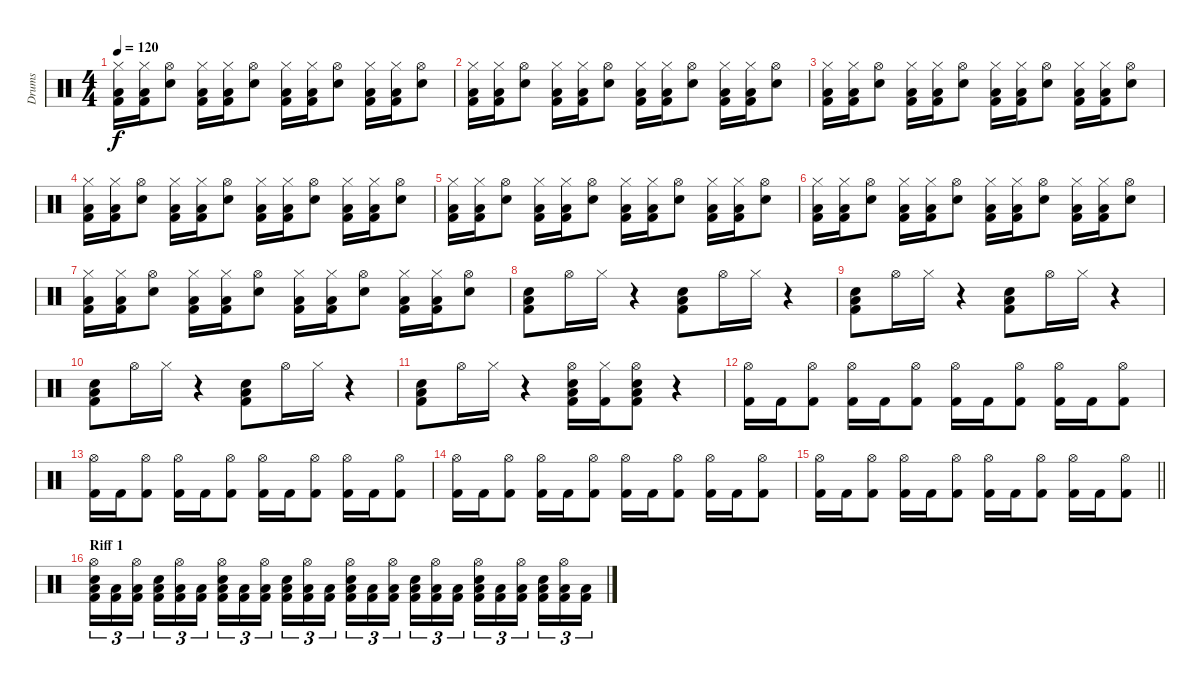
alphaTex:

\track ("Drums" "Drums") {instrument percussion}
\staff {score}
\articulation defaults
\ts (4 4)
\tempo 120
\clef neutral
\ks c
("Hi-Hat (closed)" "Low Floor Tom (hit)" "Kick (hit) 2").16{dy f} ("Hi-Hat (closed)" "Low Floor Tom (hit)" "Kick (hit) 2").16 ("Hi-Hat (open)" "Snare (hit) 2").8 ("Hi-Hat (closed)" "Low Floor Tom (hit)" "Kick (hit) 2").16 ("Hi-Hat (closed)" "Low Floor Tom (hit)" "Kick (hit) 2").16 ("Hi-Hat (open)" "Snare (hit) 2").8 ("Hi-Hat (closed)" "Low Floor Tom (hit)" "Kick (hit) 2").16 ("Hi-Hat (closed)" "Low Floor Tom (hit)" "Kick (hit) 2").16 ("Hi-Hat (open)" "Snare (hit) 2").8 ("Hi-Hat (closed)" "Low Floor Tom (hit)" "Kick (hit) 2").16 ("Hi-Hat (closed)" "Low Floor Tom (hit)" "Kick (hit) 2").16 ("Hi-Hat (open)" "Snare (hit) 2").8 |
("Hi-Hat (closed)" "Low Floor Tom (hit)" "Kick (hit) 2").16 ("Hi-Hat (closed)" "Low Floor Tom (hit)" "Kick (hit) 2").16 ("Hi-Hat (open)" "Snare (hit) 2").8 ("Hi-Hat (closed)" "Low Floor Tom (hit)" "Kick (hit) 2").16 ("Hi-Hat (closed)" "Low Floor Tom (hit)" "Kick (hit) 2").16 ("Hi-Hat (open)" "Snare (hit) 2").8 ("Hi-Hat (closed)" "Low Floor Tom (hit)" "Kick (hit) 2").16 ("Hi-Hat (closed)" "Low Floor Tom (hit)" "Kick (hit) 2").16 ("Hi-Hat (open)" "Snare (hit) 2").8 ("Hi-Hat (closed)" "Low Floor Tom (hit)" "Kick (hit) 2").16 ("Hi-Hat (closed)" "Low Floor Tom (hit)" "Kick (hit) 2").16 ("Hi-Hat (open)" "Snare (hit) 2").8 |
("Hi-Hat (closed)" "Low Floor Tom (hit)" "Kick (hit) 2").16 ("Hi-Hat (closed)" "Low Floor Tom (hit)" "Kick (hit) 2").16 ("Hi-Hat (open)" "Snare (hit) 2").8 ("Hi-Hat (closed)" "Low Floor Tom (hit)" "Kick (hit) 2").16 ("Hi-Hat (closed)" "Low Floor Tom (hit)" "Kick (hit) 2").16 ("Hi-Hat (open)" "Snare (hit) 2").8 ("Hi-Hat (closed)" "Low Floor Tom (hit)" "Kick (hit) 2").16 ("Hi-Hat (closed)" "Low Floor Tom (hit)" "Kick (hit) 2").16 ("Hi-Hat (open)" "Snare (hit) 2").8 ("Hi-Hat (closed)" "Low Floor Tom (hit)" "Kick (hit) 2").16 ("Hi-Hat (closed)" "Low Floor Tom (hit)" "Kick (hit) 2").16 ("Hi-Hat (open)" "Snare (hit) 2").8 |
("Hi-Hat (closed)" "Low Floor Tom (hit)" "Kick (hit) 2").16 ("Hi-Hat (closed)" "Low Floor Tom (hit)" "Kick (hit) 2").16 ("Hi-Hat (open)" "Snare (hit) 2").8 ("Hi-Hat (closed)" "Low Floor Tom (hit)" "Kick (hit) 2").16 ("Hi-Hat (closed)" "Low Floor Tom (hit)" "Kick (hit) 2").16 ("Hi-Hat (open)" "Snare (hit) 2").8 ("Hi-Hat (closed)" "Low Floor Tom (hit)" "Kick (hit) 2").16 ("Hi-Hat (closed)" "Low Floor Tom (hit)" "Kick (hit) 2").16 ("Hi-Hat (open)" "Snare (hit) 2").8 ("Hi-Hat (closed)" "Low Floor Tom (hit)" "Kick (hit) 2").16 ("Hi-Hat (closed)" "Low Floor Tom (hit)" "Kick (hit) 2").16 ("Hi-Hat (open)" "Snare (hit) 2").8 |
("Hi-Hat (closed)" "Low Floor Tom (hit)" "Kick (hit) 2").16 ("Hi-Hat (closed)" "Low Floor Tom (hit)" "Kick (hit) 2").16 ("Hi-Hat (open)" "Snare (hit) 2").8 ("Hi-Hat (closed)" "Low Floor Tom (hit)" "Kick (hit) 2").16 ("Hi-Hat (closed)" "Low Floor Tom (hit)" "Kick (hit) 2").16 ("Hi-Hat (open)" "Snare (hit) 2").8 ("Hi-Hat (closed)" "Low Floor Tom (hit)" "Kick (hit) 2").16 ("Hi-Hat (closed)" "Low Floor Tom (hit)" "Kick (hit) 2").16 ("Hi-Hat (open)" "Snare (hit) 2").8 ("Hi-Hat (closed)" "Low Floor Tom (hit)" "Kick (hit) 2").16 ("Hi-Hat (closed)" "Low Floor Tom (hit)" "Kick (hit) 2").16 ("Hi-Hat (open)" "Snare (hit) 2").8 |
("Hi-Hat (closed)" "Low Floor Tom (hit)" "Kick (hit) 2").16 ("Hi-Hat (closed)" "Low Floor Tom (hit)" "Kick (hit) 2").16 ("Hi-Hat (open)" "Snare (hit) 2").8 ("Hi-Hat (closed)" "Low Floor Tom (hit)" "Kick (hit) 2").16 ("Hi-Hat (closed)" "Low Floor Tom (hit)" "Kick (hit) 2").16 ("Hi-Hat (open)" "Snare (hit) 2").8 ("Hi-Hat (closed)" "Low Floor Tom (hit)" "Kick (hit) 2").16 ("Hi-Hat (closed)" "Low Floor Tom (hit)" "Kick (hit) 2").16 ("Hi-Hat (open)" "Snare (hit) 2").8 ("Hi-Hat (closed)" "Low Floor Tom (hit)" "Kick (hit) 2").16 ("Hi-Hat (closed)" "Low Floor Tom (hit)" "Kick (hit) 2").16 ("Hi-Hat (open)" "Snare (hit) 2").8 |
("Hi-Hat (closed)" "Low Floor Tom (hit)" "Kick (hit) 2").16 ("Hi-Hat (closed)" "Low Floor Tom (hit)" "Kick (hit) 2").16 ("Hi-Hat (open)" "Snare (hit) 2").8 ("Hi-Hat (closed)" "Low Floor Tom (hit)" "Kick (hit) 2").16 ("Hi-Hat (closed)" "Low Floor Tom (hit)" "Kick (hit) 2").16 ("Hi-Hat (open)" "Snare (hit) 2").8 ("Hi-Hat (closed)" "Low Floor Tom (hit)" "Kick (hit) 2").16 ("Hi-Hat (closed)" "Low Floor Tom (hit)" "Kick (hit) 2").16 ("Hi-Hat (open)" "Snare (hit) 2").8 ("Hi-Hat (closed)" "Low Floor Tom (hit)" "Kick (hit) 2").16 ("Hi-Hat (closed)" "Low Floor Tom (hit)" "Kick (hit) 2").16 ("Hi-Hat (open)" "Snare (hit) 2").8 |
("Low Floor Tom (hit)" "Snare (hit) 2" "Kick (hit) 2").8 "Hi-Hat (open)".16 "Hi-Hat (closed)".16 r.4 ("Low Floor Tom (hit)" "Snare (hit) 2" "Kick (hit) 2").8 "Hi-Hat (open)".16 "Hi-Hat (closed)".16 r.4 |
("Low Floor Tom (hit)" "Snare (hit) 2" "Kick (hit) 2").8 "Hi-Hat (open)".16 "Hi-Hat (closed)".16 r.4 ("Low Floor Tom (hit)" "Snare (hit) 2" "Kick (hit) 2").8 "Hi-Hat (open)".16 "Hi-Hat (closed)".16 r.4 |
("Low Floor Tom (hit)" "Snare (hit) 2" "Kick (hit) 2").8 "Hi-Hat (open)".16 "Hi-Hat (closed)".16 r.4 ("Low Floor Tom (hit)" "Snare (hit) 2" "Kick (hit) 2").8 "Hi-Hat (open)".16 "Hi-Hat (closed)".16 r.4 |
("Low Floor Tom (hit)" "Snare (hit) 2" "Kick (hit) 2").8 "Hi-Hat (open)".16 "Hi-Hat (closed)".16 r.4 ("Hi-Hat (open)" "Low Floor Tom (hit)" "Snare (hit) 2" "Kick (hit) 2").16 ("Hi-Hat (closed)" "Kick (hit) 2").16 ("Hi-Hat (open)" "Low Floor Tom (hit)" "Snare (hit) 2" "Kick (hit) 2").8 r.4 |
("Hi-Hat (open)" "Kick (hit) 2").16 "Kick (hit) 2".16 ("Hi-Hat (open)" "Kick (hit) 2").8 ("Hi-Hat (open)" "Kick (hit) 2").16 "Kick (hit) 2".16 ("Hi-Hat (open)" "Kick (hit) 2").8 ("Hi-Hat (open)" "Kick (hit) 2").16 "Kick (hit) 2".16 ("Hi-Hat (open)" "Kick (hit) 2").8 ("Hi-Hat (open)" "Kick (hit) 2").16 "Kick (hit) 2".16 ("Hi-Hat (open)" "Kick (hit) 2").8 |
("Hi-Hat (open)" "Kick (hit) 2").16 "Kick (hit) 2".16 ("Hi-Hat (open)" "Kick (hit) 2").8 ("Hi-Hat (open)" "Kick (hit) 2").16 "Kick (hit) 2".16 ("Hi-Hat (open)" "Kick (hit) 2").8 ("Hi-Hat (open)" "Kick (hit) 2").16 "Kick (hit) 2".16 ("Hi-Hat (open)" "Kick (hit) 2").8 ("Hi-Hat (open)" "Kick (hit) 2").16 "Kick (hit) 2".16 ("Hi-Hat (open)" "Kick (hit) 2").8 |
("Hi-Hat (open)" "Kick (hit) 2").16 "Kick (hit) 2".16 ("Hi-Hat (open)" "Kick (hit) 2").8 ("Hi-Hat (open)" "Kick (hit) 2").16 "Kick (hit) 2".16 ("Hi-Hat (open)" "Kick (hit) 2").8 ("Hi-Hat (open)" "Kick (hit) 2").16 "Kick (hit) 2".16 ("Hi-Hat (open)" "Kick (hit) 2").8 ("Hi-Hat (open)" "Kick (hit) 2").16 "Kick (hit) 2".16 ("Hi-Hat (open)" "Kick (hit) 2").8 |
\barLineRight lightlight
("Hi-Hat (open)" "Kick (hit) 2").16 "Kick (hit) 2".16 ("Hi-Hat (open)" "Kick (hit) 2").8 ("Hi-Hat (open)" "Kick (hit) 2").16 "Kick (hit) 2".16 ("Hi-Hat (open)" "Kick (hit) 2").8 ("Hi-Hat (open)" "Kick (hit) 2").16 "Kick (hit) 2".16 ("Hi-Hat (open)" "Kick (hit) 2").8 ("Hi-Hat (open)" "Kick (hit) 2").16 "Kick (hit) 2".16 ("Hi-Hat (open)" "Kick (hit) 2").8 |
\section ("" "Riff 1")
("Hi-Hat (open)" "Low Floor Tom (hit)" "Snare (hit) 2" "Kick (hit) 2").16{tu (3 2)} ("Low Floor Tom (hit)" "Kick (hit) 2").16{tu (3 2)} ("Hi-Hat (open)" "Low Floor Tom (hit)" "Kick (hit) 2").16{tu (3 2) beam splitsecondary} ("Low Floor Tom (hit)" "Snare (hit) 2" "Kick (hit) 2").16{tu (3 2)} ("Hi-Hat (open)" "Low Floor Tom (hit)" "Kick (hit) 2").16{tu (3 2)} ("Low Floor Tom (hit)" "Kick (hit) 2").16{tu (3 2)} ("Hi-Hat (open)" "Low Floor Tom (hit)" "Snare (hit) 2" "Kick (hit) 2").16{tu (3 2)} ("Low Floor Tom (hit)" "Kick (hit) 2").16{tu (3 2)} ("Hi-Hat (open)" "Low Floor Tom (hit)" "Kick (hit) 2").16{tu (3 2) beam splitsecondary} ("Low Floor Tom (hit)" "Snare (hit) 2" "Kick (hit) 2").16{tu (3 2)} ("Hi-Hat (open)" "Low Floor Tom (hit)" "Kick (hit) 2").16{tu (3 2)} ("Low Floor Tom (hit)" "Kick (hit) 2").16{tu (3 2)} ("Hi-Hat (open)" "Low Floor Tom (hit)" "Snare (hit) 2" "Kick (hit) 2").16{tu (3 2)} ("Low Floor Tom (hit)" "Kick (hit) 2").16{tu (3 2)} ("Hi-Hat (open)" "Low Floor Tom (hit)" "Kick (hit) 2").16{tu (3 2) beam splitsecondary} ("Low Floor Tom (hit)" "Snare (hit) 2" "Kick (hit) 2").16{tu (3 2)} ("Hi-Hat (open)" "Low Floor Tom (hit)" "Kick (hit) 2").16{tu (3 2)} ("Low Floor Tom (hit)" "Kick (hit) 2").16{tu (3 2)} ("Hi-Hat (open)" "Low Floor Tom (hit)" "Snare (hit) 2" "Kick (hit) 2").16{tu (3 2)} ("Low Floor Tom (hit)" "Kick (hit) 2").16{tu (3 2)} ("Hi-Hat (open)" "Low Floor Tom (hit)" "Kick (hit) 2").16{tu (3 2) beam splitsecondary} ("Low Floor Tom (hit)" "Snare (hit) 2" "Kick (hit) 2").16{tu (3 2)} ("Hi-Hat (open)" "Low Floor Tom (hit)" "Kick (hit) 2").16{tu (3 2)} ("Low Floor Tom (hit)" "Kick (hit) 2").16{tu (3 2)}
